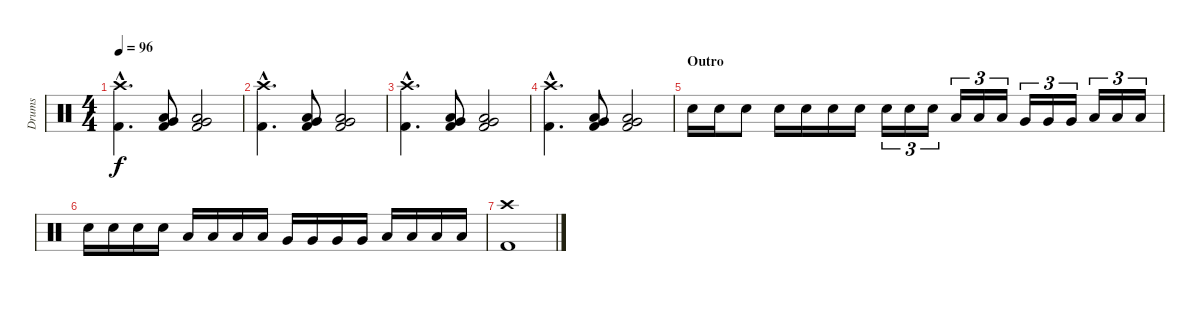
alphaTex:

\track ("Drums" "Drums") {instrument percussion}
\staff {score}
\articulation defaults
\ts (4 4)
\tempo 96
\clef neutral
\ks c
("Crash high (hit)"{hac} "Kick (hit) 2"{hac}).4{d dy f} ("Very Low Tom (hit)" "Low Tom (hit)" "Kick (hit) 2").8 ("Very Low Tom (hit)" "Low Tom (hit)" "Kick (hit) 2").2 |
("Crash high (hit)"{hac} "Kick (hit) 2"{hac}).4{d} ("Very Low Tom (hit)" "Low Tom (hit)" "Kick (hit) 2").8 ("Very Low Tom (hit)" "Low Tom (hit)" "Kick (hit) 2").2 |
("Crash high (hit)"{hac} "Kick (hit) 2"{hac}).4{d} ("Very Low Tom (hit)" "Low Tom (hit)" "Kick (hit) 2").8 ("Very Low Tom (hit)" "Low Tom (hit)" "Kick (hit) 2").2 |
("Crash high (hit)"{hac} "Kick (hit) 2"{hac}).4{d} ("Very Low Tom (hit)" "Low Tom (hit)" "Kick (hit) 2").8 ("Very Low Tom (hit)" "Low Tom (hit)" "Kick (hit) 2").2 |
\section ("" "Outro")
"Snare (hit) 2".16 "Snare (hit) 2".16 "Snare (hit) 2".8 "Snare (hit) 2".16 "Snare (hit) 2".16 "Snare (hit) 2".16 "Snare (hit) 2".16 "Snare (hit) 2".16{tu (3 2)} "Snare (hit) 2".16{tu (3 2)} "Snare (hit) 2".16{tu (3 2)} "Low Tom (hit)".16{tu (3 2)} "Low Tom (hit)".16{tu (3 2)} "Low Tom (hit)".16{tu (3 2)} "Very Low Tom (hit)".16{tu (3 2)} "Very Low Tom (hit)".16{tu (3 2)} "Very Low Tom (hit)".16{tu (3 2)} "Low Floor Tom (hit)".16{tu (3 2)} "Low Floor Tom (hit)".16{tu (3 2)} "Low Floor Tom (hit)".16{tu (3 2)} |
"Snare (hit) 2".16 "Snare (hit) 2".16 "Snare (hit) 2".16 "Snare (hit) 2".16 "Low Tom (hit)".16 "Low Tom (hit)".16 "Low Tom (hit)".16 "Low Tom (hit)".16 "Very Low Tom (hit)".16 "Very Low Tom (hit)".16 "Very Low Tom (hit)".16 "Very Low Tom (hit)".16 "Low Floor Tom (hit)".16 "Low Floor Tom (hit)".16 "Low Floor Tom (hit)".16 "Low Floor Tom (hit)".16 |
("Crash high (hit)" "Kick (hit) 2").1
